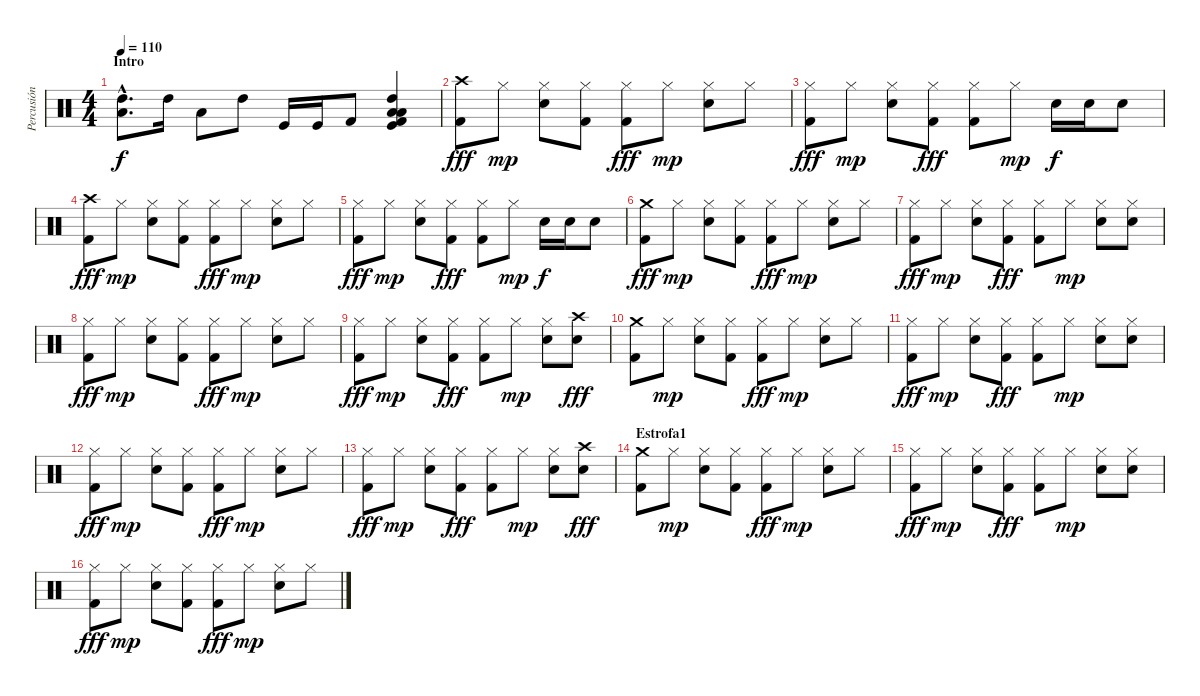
\track ("Percusión" "Percusión") {instrument percussion}
\staff {score}
\articulation defaults
\ts (4 4)
\section ("" "Intro")
\tempo 110
\clef neutral
\ks c
("Low Tom (hit)"{hac} "High Tom (hit)"{hac}).8{d bd 120 dy f} "High Tom (hit)".16 "Low Tom (hit)".8 "High Tom (hit)".8 "Kick (hit)".16 "Kick (hit)".16 "Kick (hit) 2".8 ("High Tom (hit)" "Kick (hit)" "Low Tom (hit)" "Kick (hit) 2" "Low Tom (hit)").4{bd 30} |
("Crash high (hit)" "Kick (hit) 2").8{dy fff volume 11 balance 8} "Hi-Hat (closed)".8{dy mp} ("Hi-Hat (closed)" "Snare (hit) 2").8 ("Hi-Hat (closed)" "Kick (hit) 2").8 ("Hi-Hat (closed)" "Kick (hit) 2").8{dy fff} "Hi-Hat (closed)".8{dy mp} ("Hi-Hat (closed)" "Snare (hit) 2").8 "Hi-Hat (closed)".8 |
("Hi-Hat (closed)" "Kick (hit) 2").8{dy fff} "Hi-Hat (closed)".8{dy mp} ("Hi-Hat (closed)" "Snare (hit) 2").8 ("Hi-Hat (closed)" "Kick (hit) 2").8{dy fff} ("Hi-Hat (closed)" "Kick (hit) 2").8 "Hi-Hat (closed)".8{dy mp} "Snare (hit) 2".16{dy f} "Snare (hit) 2".16 "Snare (hit) 2".8 |
("Crash high (hit)" "Kick (hit) 2").8{dy fff} "Hi-Hat (closed)".8{dy mp} ("Hi-Hat (closed)" "Snare (hit) 2").8 ("Hi-Hat (closed)" "Kick (hit) 2").8 ("Hi-Hat (closed)" "Kick (hit) 2").8{dy fff} "Hi-Hat (closed)".8{dy mp} ("Hi-Hat (closed)" "Snare (hit) 2").8 "Hi-Hat (closed)".8 |
("Hi-Hat (closed)" "Kick (hit) 2").8{dy fff} "Hi-Hat (closed)".8{dy mp} ("Hi-Hat (closed)" "Snare (hit) 2").8 ("Hi-Hat (closed)" "Kick (hit) 2").8{dy fff} ("Hi-Hat (closed)" "Kick (hit) 2").8 "Hi-Hat (closed)".8{dy mp} "Snare (hit) 2".16{dy f} "Snare (hit) 2".16 "Snare (hit) 2".8 |
("Crash medium (hit)" "Kick (hit) 2").8{dy fff} "Hi-Hat (closed)".8{dy mp} ("Hi-Hat (closed)" "Snare (hit) 2").8 ("Hi-Hat (closed)" "Kick (hit) 2").8 ("Hi-Hat (closed)" "Kick (hit) 2").8{dy fff} "Hi-Hat (closed)".8{dy mp} ("Hi-Hat (closed)" "Snare (hit) 2").8 "Hi-Hat (closed)".8 |
("Hi-Hat (closed)" "Kick (hit) 2").8{dy fff} "Hi-Hat (closed)".8{dy mp} ("Hi-Hat (closed)" "Snare (hit) 2").8 ("Hi-Hat (closed)" "Kick (hit) 2").8{dy fff} ("Hi-Hat (closed)" "Kick (hit) 2").8 "Hi-Hat (closed)".8{dy mp} ("Hi-Hat (closed)" "Snare (hit) 2").8 ("Hi-Hat (closed)" "Snare (hit) 2").8 |
("Hi-Hat (closed)" "Kick (hit) 2").8{dy fff} "Hi-Hat (closed)".8{dy mp} ("Hi-Hat (closed)" "Snare (hit) 2").8 ("Hi-Hat (closed)" "Kick (hit) 2").8 ("Hi-Hat (closed)" "Kick (hit) 2").8{dy fff} "Hi-Hat (closed)".8{dy mp} ("Hi-Hat (closed)" "Snare (hit) 2").8 "Hi-Hat (closed)".8 |
("Hi-Hat (closed)" "Kick (hit) 2").8{dy fff} "Hi-Hat (closed)".8{dy mp} ("Hi-Hat (closed)" "Snare (hit) 2").8 ("Hi-Hat (closed)" "Kick (hit) 2").8{dy fff} ("Hi-Hat (closed)" "Kick (hit) 2").8 "Hi-Hat (closed)".8{dy mp} ("Hi-Hat (closed)" "Snare (hit) 2").8 ("Crash high (hit)" "Snare (hit) 2").8{dy fff} |
("Crash medium (hit)" "Kick (hit) 2").8 "Hi-Hat (closed)".8{dy mp} ("Hi-Hat (closed)" "Snare (hit) 2").8 ("Hi-Hat (closed)" "Kick (hit) 2").8 ("Hi-Hat (closed)" "Kick (hit) 2").8{dy fff} "Hi-Hat (closed)".8{dy mp} ("Hi-Hat (closed)" "Snare (hit) 2").8 "Hi-Hat (closed)".8 |
("Hi-Hat (closed)" "Kick (hit) 2").8{dy fff} "Hi-Hat (closed)".8{dy mp} ("Hi-Hat (closed)" "Snare (hit) 2").8 ("Hi-Hat (closed)" "Kick (hit) 2").8{dy fff} ("Hi-Hat (closed)" "Kick (hit) 2").8 "Hi-Hat (closed)".8{dy mp} ("Hi-Hat (closed)" "Snare (hit) 2").8 ("Hi-Hat (closed)" "Snare (hit) 2").8 |
("Hi-Hat (closed)" "Kick (hit) 2").8{dy fff} "Hi-Hat (closed)".8{dy mp} ("Hi-Hat (closed)" "Snare (hit) 2").8 ("Hi-Hat (closed)" "Kick (hit) 2").8 ("Hi-Hat (closed)" "Kick (hit) 2").8{dy fff} "Hi-Hat (closed)".8{dy mp} ("Hi-Hat (closed)" "Snare (hit) 2").8 "Hi-Hat (closed)".8 |
("Hi-Hat (closed)" "Kick (hit) 2").8{dy fff} "Hi-Hat (closed)".8{dy mp} ("Hi-Hat (closed)" "Snare (hit) 2").8 ("Hi-Hat (closed)" "Kick (hit) 2").8{dy fff} ("Hi-Hat (closed)" "Kick (hit) 2").8 "Hi-Hat (closed)".8{dy mp} ("Hi-Hat (closed)" "Snare (hit) 2").8 ("Crash high (hit)" "Snare (hit) 2").8{dy fff} |
\section ("" "Estrofa1")
("Crash medium (hit)" "Kick (hit) 2").8 "Hi-Hat (closed)".8{dy mp} ("Hi-Hat (closed)" "Snare (hit) 2").8 ("Hi-Hat (closed)" "Kick (hit) 2").8 ("Hi-Hat (closed)" "Kick (hit) 2").8{dy fff} "Hi-Hat (closed)".8{dy mp} ("Hi-Hat (closed)" "Snare (hit) 2").8 "Hi-Hat (closed)".8 |
("Hi-Hat (closed)" "Kick (hit) 2").8{dy fff} "Hi-Hat (closed)".8{dy mp} ("Hi-Hat (closed)" "Snare (hit) 2").8 ("Hi-Hat (closed)" "Kick (hit) 2").8{dy fff} ("Hi-Hat (closed)" "Kick (hit) 2").8 "Hi-Hat (closed)".8{dy mp} ("Hi-Hat (closed)" "Snare (hit) 2").8 ("Hi-Hat (closed)" "Snare (hit) 2").8 |
("Hi-Hat (closed)" "Kick (hit) 2").8{dy fff} "Hi-Hat (closed)".8{dy mp} ("Hi-Hat (closed)" "Snare (hit) 2").8 ("Hi-Hat (closed)" "Kick (hit) 2").8 ("Hi-Hat (closed)" "Kick (hit) 2").8{dy fff} "Hi-Hat (closed)".8{dy mp} ("Hi-Hat (closed)" "Snare (hit) 2").8 "Hi-Hat (closed)".8
